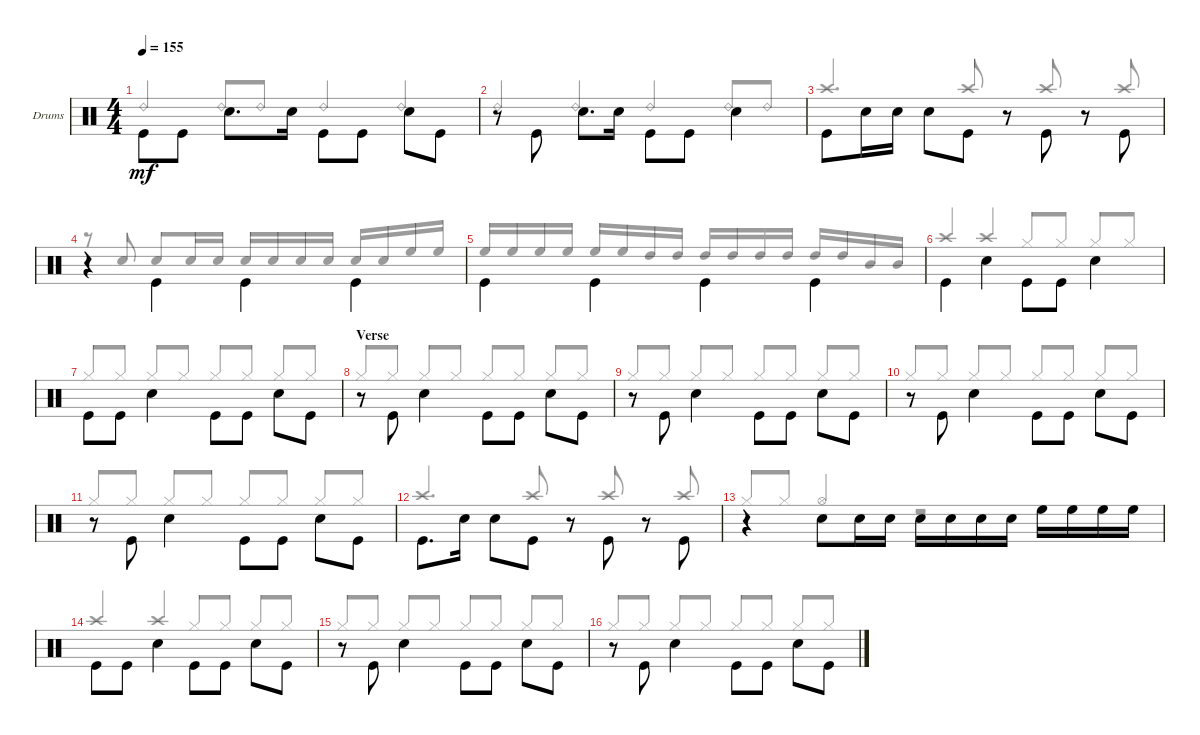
\defaultSystemsLayout 4
\bracketExtendMode groupsimilarinstruments
\firstSystemTrackNameOrientation horizontal
\otherSystemsTrackNameOrientation horizontal
\track ("PETER CRISS" "Drums") {instrument percussion}
\staff {score}
\articulation defaults
\voice
\ts (4 4)
\tempo 155
\clef neutral
\ks c "Kick (hit)".8{dy mf beam invert} "Kick (hit)".8 "Snare (hit) 2".8{d beam invert} "Snare (hit) 2".16 "Kick (hit)".8{beam invert} "Kick (hit)".8 "Snare (hit) 2".8{beam invert} "Kick (hit)".8
|
r.8{beam invert} "Kick (hit)".8{beam invert} "Snare (hit) 2".8{d beam invert} "Snare (hit) 2".16 "Kick (hit)".8{beam invert} "Kick (hit)".8 "Snare (hit) 2".4{beam invert} |
"Kick (hit)".8{beam invert} "Snare (hit) 2".16 "Snare (hit) 2".16 "Snare (hit) 2".8{beam invert} "Kick (hit)".8 r.8 "Kick (hit)".8{beam invert} r.8 "Kick (hit)".8{beam invert} |
r.4 "Kick (hit)".4{beam invert} "Kick (hit)".4{beam invert} "Kick (hit)".4{beam invert} |
"Kick (hit)".4{beam invert} "Kick (hit)".4{beam invert} "Kick (hit)".4{beam invert} "Kick (hit)".4{beam invert} |
"Kick (hit)".4{beam invert} "Snare (hit) 2".4{beam invert} "Kick (hit)".8{beam invert} "Kick (hit)".8 "Snare (hit) 2".4{beam invert} |
"Kick (hit)".8{beam invert} "Kick (hit)".8 "Snare (hit) 2".4{beam invert} "Kick (hit)".8{beam invert} "Kick (hit)".8 "Snare (hit) 2".8{beam invert} "Kick (hit)".8 |
\section ("" "Verse")
r.8 "Kick (hit)".8{beam invert} "Snare (hit) 2".4{beam invert} "Kick (hit)".8{beam invert} "Kick (hit)".8 "Snare (hit) 2".8{beam invert} "Kick (hit)".8 |
r.8 "Kick (hit)".8{beam invert} "Snare (hit) 2".4{beam invert} "Kick (hit)".8{beam invert} "Kick (hit)".8 "Snare (hit) 2".8{beam invert} "Kick (hit)".8 |
r.8 "Kick (hit)".8{beam invert} "Snare (hit) 2".4{beam invert} "Kick (hit)".8{beam invert} "Kick (hit)".8 "Snare (hit) 2".8{beam invert} "Kick (hit)".8 |
r.8 "Kick (hit)".8{beam invert} "Snare (hit) 2".4{beam invert} "Kick (hit)".8{beam invert} "Kick (hit)".8 "Snare (hit) 2".8{beam invert} "Kick (hit)".8 |
"Kick (hit)".8{d beam invert} "Snare (hit) 2".16 "Snare (hit) 2".8{beam invert} "Kick (hit)".8 r.8 "Kick (hit)".8{beam invert} r.8 "Kick (hit)".8{beam invert} |
r.4 "Snare (hit) 2".8{beam invert} "Snare (hit) 2".16 "Snare (hit) 2".16 "Snare (hit) 2".16{beam invert} "Snare (hit) 2".16 "Snare (hit) 2".16 "Snare (hit) 2".16 "High Floor Tom (hit)".16{beam invert} "High Floor Tom (hit)".16 "High Floor Tom (hit)".16 "High Floor Tom (hit)".16 |
"Kick (hit)".8{beam invert} "Kick (hit)".8 "Snare (hit) 2".4{beam invert} "Kick (hit)".8{beam invert} "Kick (hit)".8 "Snare (hit) 2".8{beam invert} "Kick (hit)".8 |
r.8 "Kick (hit)".8{beam invert} "Snare (hit) 2".4{beam invert} "Kick (hit)".8{beam invert} "Kick (hit)".8 "Snare (hit) 2".8{beam invert} "Kick (hit)".8 |
r.8 "Kick (hit)".8{beam invert} "Snare (hit) 2".4{beam invert} "Kick (hit)".8{beam invert} "Kick (hit)".8 "Snare (hit) 2".8{beam invert} "Kick (hit)".8
\voice
\clef neutral
\ottava regular
\simile none
\ks c "Ride (bell) 2".4{dy mf beam invert} "Ride (bell) 2".8{beam invert} "Ride (bell) 2".8 "Ride (bell) 2".4{beam invert} "Ride (bell) 2".4{beam invert}
|
"Ride (bell) 2".4{beam invert} "Ride (bell) 2".4{beam invert} "Ride (bell) 2".4{beam invert} "Ride (bell) 2".8{beam invert} "Ride (bell) 2".8 |
"Crash high (hit)".4{d beam invert} "Crash high (hit)".8{beam invert} r.8 "Crash high (hit)".8{beam invert} r.8 "Crash high (hit)".8{beam invert} |
r.8 "Snare (hit) 2".8{beam invert} "Snare (hit) 2".8{beam invert} "Snare (hit) 2".16 "Snare (hit) 2".16 "Snare (hit) 2".16{beam invert} "Snare (hit) 2".16 "Snare (hit) 2".16 "Snare (hit) 2".16 "Snare (hit) 2".16{beam invert} "Snare (hit) 2".16 "High Floor Tom (hit)".16 "High Floor Tom (hit)".16 |
"High Floor Tom (hit)".16{beam invert} "High Floor Tom (hit)".16 "High Floor Tom (hit)".16 "High Floor Tom (hit)".16 "High Floor Tom (hit)".16{beam invert} "High Floor Tom (hit)".16 "High Tom (hit)".16 "High Tom (hit)".16 "High Tom (hit)".16{beam invert} "High Tom (hit)".16 "High Tom (hit)".16 "High Tom (hit)".16 "High Tom (hit)".16{beam invert} "High Tom (hit)".16 "Mid Tom (hit)".16 "Mid Tom (hit)".16 |
"Crash high (hit)".4{beam invert} "Crash high (hit)".4{beam invert} "Hi-Hat (closed)".8{beam invert} "Hi-Hat (closed)".8 "Hi-Hat (closed)".8{beam invert} "Hi-Hat (closed)".8 |
"Hi-Hat (closed)".8{beam invert} "Hi-Hat (closed)".8 "Hi-Hat (closed)".8{beam invert} "Hi-Hat (closed)".8 "Hi-Hat (closed)".8{beam invert} "Hi-Hat (closed)".8 "Hi-Hat (closed)".8{beam invert} "Hi-Hat (closed)".8 |
"Hi-Hat (closed)".8{beam invert} "Hi-Hat (closed)".8 "Hi-Hat (closed)".8{beam invert} "Hi-Hat (closed)".8 "Hi-Hat (closed)".8{beam invert} "Hi-Hat (closed)".8 "Hi-Hat (closed)".8{beam invert} "Hi-Hat (closed)".8 |
"Hi-Hat (closed)".8{beam invert} "Hi-Hat (closed)".8 "Hi-Hat (closed)".8{beam invert} "Hi-Hat (closed)".8 "Hi-Hat (closed)".8{beam invert} "Hi-Hat (closed)".8 "Hi-Hat (closed)".8{beam invert} "Hi-Hat (closed)".8 |
"Hi-Hat (closed)".8{beam invert} "Hi-Hat (closed)".8 "Hi-Hat (closed)".8{beam invert} "Hi-Hat (closed)".8 "Hi-Hat (closed)".8{beam invert} "Hi-Hat (closed)".8 "Hi-Hat (closed)".8{beam invert} "Hi-Hat (closed)".8 |
"Hi-Hat (closed)".8{beam invert} "Hi-Hat (closed)".8 "Hi-Hat (closed)".8{beam invert} "Hi-Hat (closed)".8 "Hi-Hat (closed)".8{beam invert} "Hi-Hat (closed)".8 "Hi-Hat (closed)".8{beam invert} "Hi-Hat (closed)".8 |
"Crash high (hit)".4{d beam invert} "Crash high (hit)".8{beam invert} r.8 "Crash high (hit)".8{beam invert} r.8 "Crash high (hit)".8{beam invert} |
"Hi-Hat (closed)".8{beam invert} "Hi-Hat (closed)".8 "Hi-Hat (open)".4{beam invert} r.2{beam invert} |
"Crash high (hit)".4{beam invert} "Crash high (hit)".4{beam invert} "Hi-Hat (closed)".8{beam invert} "Hi-Hat (closed)".8 "Hi-Hat (closed)".8{beam invert} "Hi-Hat (closed)".8 |
"Hi-Hat (closed)".8{beam invert} "Hi-Hat (closed)".8 "Hi-Hat (closed)".8{beam invert} "Hi-Hat (closed)".8 "Hi-Hat (closed)".8{beam invert} "Hi-Hat (closed)".8 "Hi-Hat (closed)".8{beam invert} "Hi-Hat (closed)".8 |
"Hi-Hat (closed)".8{beam invert} "Hi-Hat (closed)".8 "Hi-Hat (closed)".8{beam invert} "Hi-Hat (closed)".8 "Hi-Hat (closed)".8{beam invert} "Hi-Hat (closed)".8 "Hi-Hat (closed)".8{beam invert} "Hi-Hat (closed)".8
